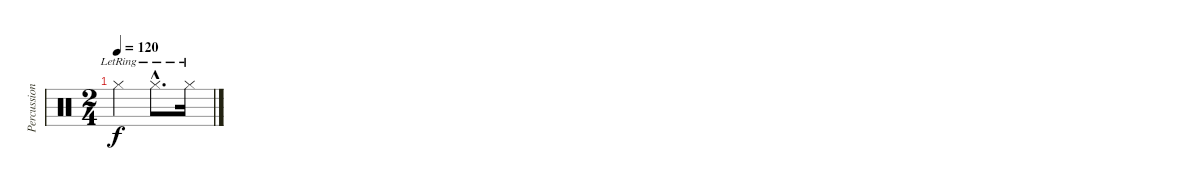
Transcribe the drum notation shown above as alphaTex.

\track ("Percussion" "Percussion") {instrument percussion}
\staff {score}
\articulation defaults
\ts (2 4)
\tempo 120
\clef neutral
\ks c "Hi-Hat (closed)"{lr}.4{dy f} "Hi-Hat (closed)"{hac lr}.8{d} "Hi-Hat (closed)"{lr}.16
